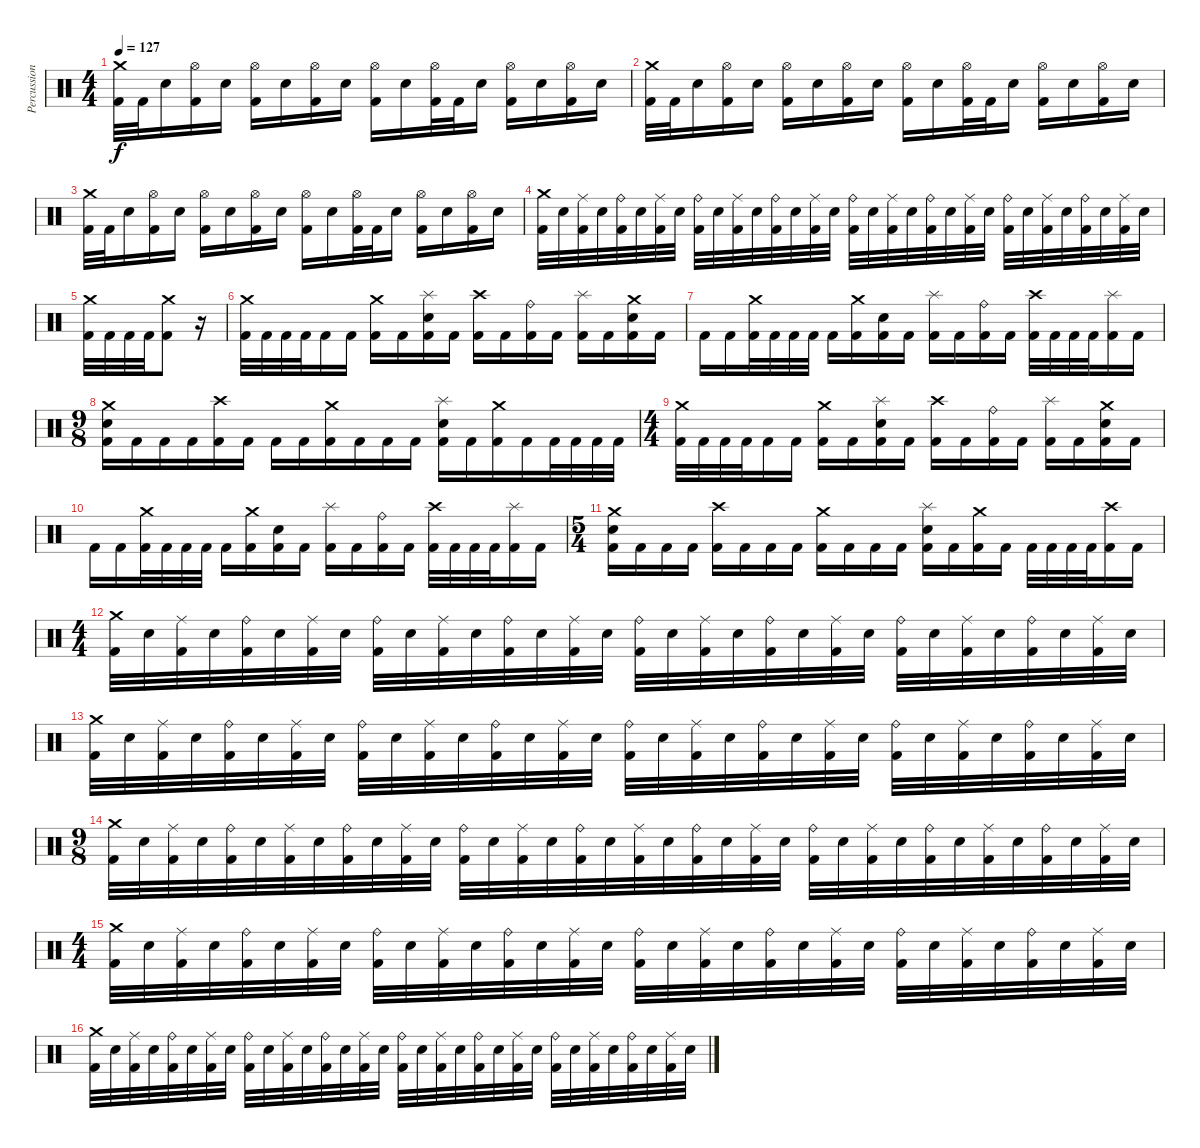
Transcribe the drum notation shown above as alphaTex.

\track ("Percussion" "Percussion") {instrument percussion}
\staff {score}
\articulation defaults
\ts (4 4)
\tempo 127
\clef neutral
\ks c
("Crash medium (hit)" "Kick (hit) 2").32{dy f} "Kick (hit) 2".32 "Electric Snare (hit)".16 ("Hi-Hat (open)" "Kick (hit) 2").16 "Electric Snare (hit)".16 ("Hi-Hat (open)" "Kick (hit) 2").16 "Electric Snare (hit)".16 ("Hi-Hat (open)" "Kick (hit) 2").16 "Electric Snare (hit)".16 ("Hi-Hat (open)" "Kick (hit) 2").16 "Electric Snare (hit)".16 ("Hi-Hat (open)" "Kick (hit) 2").32 "Kick (hit) 2".32 "Electric Snare (hit)".16 ("Hi-Hat (open)" "Kick (hit) 2").16 "Electric Snare (hit)".16 ("Hi-Hat (open)" "Kick (hit) 2").16 "Electric Snare (hit)".16 |
("Crash medium (hit)" "Kick (hit) 2").32 "Kick (hit) 2".32 "Electric Snare (hit)".16 ("Hi-Hat (open)" "Kick (hit) 2").16 "Electric Snare (hit)".16 ("Hi-Hat (open)" "Kick (hit) 2").16 "Electric Snare (hit)".16 ("Hi-Hat (open)" "Kick (hit) 2").16 "Electric Snare (hit)".16 ("Hi-Hat (open)" "Kick (hit) 2").16 "Electric Snare (hit)".16 ("Hi-Hat (open)" "Kick (hit) 2").32 "Kick (hit) 2".32 "Electric Snare (hit)".16 ("Hi-Hat (open)" "Kick (hit) 2").16 "Electric Snare (hit)".16 ("Hi-Hat (open)" "Kick (hit) 2").16 "Electric Snare (hit)".16 |
("Crash medium (hit)" "Kick (hit) 2").32 "Kick (hit) 2".32 "Electric Snare (hit)".16 ("Hi-Hat (open)" "Kick (hit) 2").16 "Electric Snare (hit)".16 ("Hi-Hat (open)" "Kick (hit) 2").16 "Electric Snare (hit)".16 ("Hi-Hat (open)" "Kick (hit) 2").16 "Electric Snare (hit)".16 ("Hi-Hat (open)" "Kick (hit) 2").16 "Electric Snare (hit)".16 ("Hi-Hat (open)" "Kick (hit) 2").32 "Kick (hit) 2".32 "Electric Snare (hit)".16 ("Hi-Hat (open)" "Kick (hit) 2").16 "Electric Snare (hit)".16 ("Hi-Hat (open)" "Kick (hit) 2").16 "Electric Snare (hit)".16 |
("Crash medium (hit)" "Kick (hit) 2").32 "Electric Snare (hit)".32 ("Ride (middle)" "Kick (hit) 2").32 "Electric Snare (hit)".32 ("Ride (bell)" "Kick (hit) 2").32 "Electric Snare (hit)".32 ("Ride (middle)" "Kick (hit) 2").32 "Electric Snare (hit)".32 ("Ride (bell)" "Kick (hit) 2").32 "Electric Snare (hit)".32 ("Ride (middle)" "Kick (hit) 2").32 "Electric Snare (hit)".32 ("Ride (bell)" "Kick (hit) 2").32 "Electric Snare (hit)".32 ("Ride (middle)" "Kick (hit) 2").32 "Electric Snare (hit)".32 ("Ride (bell)" "Kick (hit) 2").32 "Electric Snare (hit)".32 ("Ride (middle)" "Kick (hit) 2").32 "Electric Snare (hit)".32 ("Ride (bell)" "Kick (hit) 2").32 "Electric Snare (hit)".32 ("Ride (middle)" "Kick (hit) 2").32 "Electric Snare (hit)".32 ("Ride (bell)" "Kick (hit) 2").32 "Electric Snare (hit)".32 ("Ride (middle)" "Kick (hit) 2").32 "Electric Snare (hit)".32 ("Ride (bell)" "Kick (hit) 2").32 "Electric Snare (hit)".32 ("Ride (middle)" "Kick (hit) 2").32 "Electric Snare (hit)".32 |
("Crash medium (hit)" "Kick (hit) 2").32 "Kick (hit) 2".32 "Kick (hit) 2".32 "Kick (hit) 2".32 ("Crash medium (hit)" "Kick (hit) 2").8 r.16{volume 0} |
("Crash medium (hit)" "Kick (hit) 2").32{volume 13} "Kick (hit) 2".32 "Kick (hit) 2".32 "Kick (hit) 2".32 "Kick (hit) 2".16 "Kick (hit) 2".16 ("Crash medium (hit)" "Kick (hit) 2").16 "Kick (hit) 2".16 ("Splash (hit)" "Electric Snare (hit)" "Kick (hit) 2").16 "Kick (hit) 2".16 ("Crash high (hit)" "Kick (hit) 2").16 "Kick (hit) 2".16 ("Ride (bell)" "Kick (hit) 2").16 "Kick (hit) 2".16 ("Splash (hit)" "Kick (hit) 2").16 "Kick (hit) 2".16 ("Crash medium (hit)" "Electric Snare (hit)" "Kick (hit) 2").16 "Kick (hit) 2".16 |
"Kick (hit) 2".16 "Kick (hit) 2".16 ("Crash medium (hit)" "Kick (hit) 2").32 "Kick (hit) 2".32 "Kick (hit) 2".32 "Kick (hit) 2".32 "Kick (hit) 2".16 ("Crash medium (hit)" "Kick (hit) 2").16 ("Electric Snare (hit)" "Kick (hit) 2").16 "Kick (hit) 2".16 ("Splash (hit)" "Kick (hit) 2").16 "Kick (hit) 2".16 ("Ride (bell)" "Kick (hit) 2").16 "Kick (hit) 2".16 ("Crash high (hit)" "Kick (hit) 2").32 "Kick (hit) 2".32 "Kick (hit) 2".32 "Kick (hit) 2".32 ("Splash (hit)" "Kick (hit) 2").16 "Kick (hit) 2".16 |
\ts (9 8)
("Crash medium (hit)" "Electric Snare (hit)" "Kick (hit) 2").16 "Kick (hit) 2".16 "Kick (hit) 2".16 "Kick (hit) 2".16 ("Crash high (hit)" "Kick (hit) 2").16 "Kick (hit) 2".16 "Kick (hit) 2".16 "Kick (hit) 2".16 ("Crash medium (hit)" "Kick (hit) 2").16 "Kick (hit) 2".16 "Kick (hit) 2".16 "Kick (hit) 2".16 ("Splash (hit)" "Electric Snare (hit)" "Kick (hit) 2").16 "Kick (hit) 2".16 ("Crash medium (hit)" "Kick (hit) 2").16 "Kick (hit) 2".16 "Kick (hit) 2".32 "Kick (hit) 2".32 "Kick (hit) 2".32 "Kick (hit) 2".32 |
\ts (4 4)
("Crash medium (hit)" "Kick (hit) 2").32{volume 13} "Kick (hit) 2".32 "Kick (hit) 2".32 "Kick (hit) 2".32 "Kick (hit) 2".16 "Kick (hit) 2".16 ("Crash medium (hit)" "Kick (hit) 2").16 "Kick (hit) 2".16 ("Splash (hit)" "Electric Snare (hit)" "Kick (hit) 2").16 "Kick (hit) 2".16 ("Crash high (hit)" "Kick (hit) 2").16 "Kick (hit) 2".16 ("Ride (bell)" "Kick (hit) 2").16 "Kick (hit) 2".16 ("Splash (hit)" "Kick (hit) 2").16 "Kick (hit) 2".16 ("Crash medium (hit)" "Electric Snare (hit)" "Kick (hit) 2").16 "Kick (hit) 2".16 |
"Kick (hit) 2".16 "Kick (hit) 2".16 ("Crash medium (hit)" "Kick (hit) 2").32 "Kick (hit) 2".32 "Kick (hit) 2".32 "Kick (hit) 2".32 "Kick (hit) 2".16 ("Crash medium (hit)" "Kick (hit) 2").16 ("Electric Snare (hit)" "Kick (hit) 2").16 "Kick (hit) 2".16 ("Splash (hit)" "Kick (hit) 2").16 "Kick (hit) 2".16 ("Ride (bell)" "Kick (hit) 2").16 "Kick (hit) 2".16 ("Crash high (hit)" "Kick (hit) 2").32 "Kick (hit) 2".32 "Kick (hit) 2".32 "Kick (hit) 2".32 ("Splash (hit)" "Kick (hit) 2").16 "Kick (hit) 2".16 |
\ts (5 4)
("Crash medium (hit)" "Electric Snare (hit)" "Kick (hit) 2").16 "Kick (hit) 2".16 "Kick (hit) 2".16 "Kick (hit) 2".16 ("Crash high (hit)" "Kick (hit) 2").16 "Kick (hit) 2".16 "Kick (hit) 2".16 "Kick (hit) 2".16 ("Crash medium (hit)" "Kick (hit) 2").16 "Kick (hit) 2".16 "Kick (hit) 2".16 "Kick (hit) 2".16 ("Splash (hit)" "Electric Snare (hit)" "Kick (hit) 2").16 "Kick (hit) 2".16 ("Crash medium (hit)" "Kick (hit) 2").16 "Kick (hit) 2".16 "Kick (hit) 2".32 "Kick (hit) 2".32 "Kick (hit) 2".32 "Kick (hit) 2".32 ("Crash high (hit)" "Kick (hit) 2").16 "Kick (hit) 2".16 |
\ts (4 4)
("Crash medium (hit)" "Kick (hit) 2").32 "Electric Snare (hit)".32 ("Ride (middle)" "Kick (hit) 2").32 "Electric Snare (hit)".32 ("Ride (bell)" "Kick (hit) 2").32 "Electric Snare (hit)".32 ("Ride (middle)" "Kick (hit) 2").32 "Electric Snare (hit)".32 ("Ride (bell)" "Kick (hit) 2").32 "Electric Snare (hit)".32 ("Ride (middle)" "Kick (hit) 2").32 "Electric Snare (hit)".32 ("Ride (bell)" "Kick (hit) 2").32 "Electric Snare (hit)".32 ("Ride (middle)" "Kick (hit) 2").32 "Electric Snare (hit)".32 ("Ride (bell)" "Kick (hit) 2").32 "Electric Snare (hit)".32 ("Ride (middle)" "Kick (hit) 2").32 "Electric Snare (hit)".32 ("Ride (bell)" "Kick (hit) 2").32 "Electric Snare (hit)".32 ("Ride (middle)" "Kick (hit) 2").32 "Electric Snare (hit)".32 ("Ride (bell)" "Kick (hit) 2").32 "Electric Snare (hit)".32 ("Ride (middle)" "Kick (hit) 2").32 "Electric Snare (hit)".32 ("Ride (bell)" "Kick (hit) 2").32 "Electric Snare (hit)".32 ("Ride (middle)" "Kick (hit) 2").32 "Electric Snare (hit)".32 |
("Crash medium (hit)" "Kick (hit) 2").32 "Electric Snare (hit)".32 ("Ride (middle)" "Kick (hit) 2").32 "Electric Snare (hit)".32 ("Ride (bell)" "Kick (hit) 2").32 "Electric Snare (hit)".32 ("Ride (middle)" "Kick (hit) 2").32 "Electric Snare (hit)".32 ("Ride (bell)" "Kick (hit) 2").32 "Electric Snare (hit)".32 ("Ride (middle)" "Kick (hit) 2").32 "Electric Snare (hit)".32 ("Ride (bell)" "Kick (hit) 2").32 "Electric Snare (hit)".32 ("Ride (middle)" "Kick (hit) 2").32 "Electric Snare (hit)".32 ("Ride (bell)" "Kick (hit) 2").32 "Electric Snare (hit)".32 ("Ride (middle)" "Kick (hit) 2").32 "Electric Snare (hit)".32 ("Ride (bell)" "Kick (hit) 2").32 "Electric Snare (hit)".32 ("Ride (middle)" "Kick (hit) 2").32 "Electric Snare (hit)".32 ("Ride (bell)" "Kick (hit) 2").32 "Electric Snare (hit)".32 ("Ride (middle)" "Kick (hit) 2").32 "Electric Snare (hit)".32 ("Ride (bell)" "Kick (hit) 2").32 "Electric Snare (hit)".32 ("Ride (middle)" "Kick (hit) 2").32 "Electric Snare (hit)".32 |
\ts (9 8)
("Crash medium (hit)" "Kick (hit) 2").32 "Electric Snare (hit)".32 ("Ride (middle)" "Kick (hit) 2").32 "Electric Snare (hit)".32 ("Ride (bell)" "Kick (hit) 2").32 "Electric Snare (hit)".32 ("Ride (middle)" "Kick (hit) 2").32 "Electric Snare (hit)".32 ("Ride (bell)" "Kick (hit) 2").32 "Electric Snare (hit)".32 ("Ride (middle)" "Kick (hit) 2").32 "Electric Snare (hit)".32 ("Ride (bell)" "Kick (hit) 2").32 "Electric Snare (hit)".32 ("Ride (middle)" "Kick (hit) 2").32 "Electric Snare (hit)".32 ("Ride (bell)" "Kick (hit) 2").32 "Electric Snare (hit)".32 ("Ride (middle)" "Kick (hit) 2").32 "Electric Snare (hit)".32 ("Ride (bell)" "Kick (hit) 2").32 "Electric Snare (hit)".32 ("Ride (middle)" "Kick (hit) 2").32 "Electric Snare (hit)".32 ("Ride (bell)" "Kick (hit) 2").32 "Electric Snare (hit)".32 ("Ride (middle)" "Kick (hit) 2").32 "Electric Snare (hit)".32 ("Ride (bell)" "Kick (hit) 2").32 "Electric Snare (hit)".32 ("Ride (middle)" "Kick (hit) 2").32 "Electric Snare (hit)".32 ("Ride (bell)" "Kick (hit) 2").32 "Electric Snare (hit)".32 ("Ride (middle)" "Kick (hit) 2").32 "Electric Snare (hit)".32 |
\ts (4 4)
("Crash medium (hit)" "Kick (hit) 2").32 "Electric Snare (hit)".32 ("Ride (middle)" "Kick (hit) 2").32 "Electric Snare (hit)".32 ("Ride (bell)" "Kick (hit) 2").32 "Electric Snare (hit)".32 ("Ride (middle)" "Kick (hit) 2").32 "Electric Snare (hit)".32 ("Ride (bell)" "Kick (hit) 2").32 "Electric Snare (hit)".32 ("Ride (middle)" "Kick (hit) 2").32 "Electric Snare (hit)".32 ("Ride (bell)" "Kick (hit) 2").32 "Electric Snare (hit)".32 ("Ride (middle)" "Kick (hit) 2").32 "Electric Snare (hit)".32 ("Ride (bell)" "Kick (hit) 2").32 "Electric Snare (hit)".32 ("Ride (middle)" "Kick (hit) 2").32 "Electric Snare (hit)".32 ("Ride (bell)" "Kick (hit) 2").32 "Electric Snare (hit)".32 ("Ride (middle)" "Kick (hit) 2").32 "Electric Snare (hit)".32 ("Ride (bell)" "Kick (hit) 2").32 "Electric Snare (hit)".32 ("Ride (middle)" "Kick (hit) 2").32 "Electric Snare (hit)".32 ("Ride (bell)" "Kick (hit) 2").32 "Electric Snare (hit)".32 ("Ride (middle)" "Kick (hit) 2").32 "Electric Snare (hit)".32 |
("Crash medium (hit)" "Kick (hit) 2").32 "Electric Snare (hit)".32 ("Ride (middle)" "Kick (hit) 2").32 "Electric Snare (hit)".32 ("Ride (bell)" "Kick (hit) 2").32 "Electric Snare (hit)".32 ("Ride (middle)" "Kick (hit) 2").32 "Electric Snare (hit)".32 ("Ride (bell)" "Kick (hit) 2").32 "Electric Snare (hit)".32 ("Ride (middle)" "Kick (hit) 2").32 "Electric Snare (hit)".32 ("Ride (bell)" "Kick (hit) 2").32 "Electric Snare (hit)".32 ("Ride (middle)" "Kick (hit) 2").32 "Electric Snare (hit)".32 ("Ride (bell)" "Kick (hit) 2").32 "Electric Snare (hit)".32 ("Ride (middle)" "Kick (hit) 2").32 "Electric Snare (hit)".32 ("Ride (bell)" "Kick (hit) 2").32 "Electric Snare (hit)".32 ("Ride (middle)" "Kick (hit) 2").32 "Electric Snare (hit)".32 ("Ride (bell)" "Kick (hit) 2").32 "Electric Snare (hit)".32 ("Ride (middle)" "Kick (hit) 2").32 "Electric Snare (hit)".32 ("Ride (bell)" "Kick (hit) 2").32 "Electric Snare (hit)".32 ("Ride (middle)" "Kick (hit) 2").32 "Electric Snare (hit)".32
